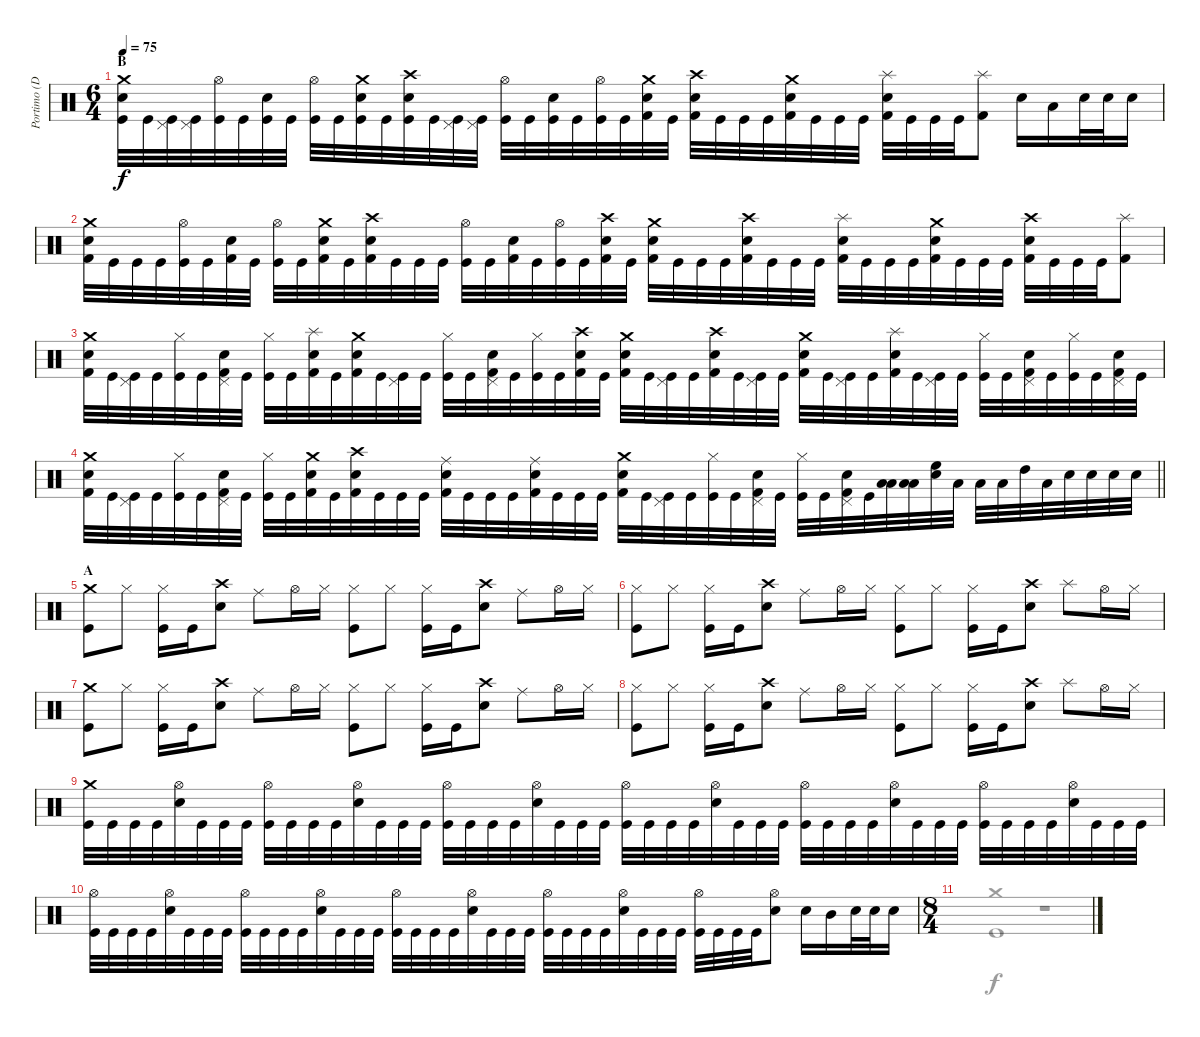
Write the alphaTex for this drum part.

\track ("Portimo (Dums)" "Portimo (D") {instrument percussion}
\staff {score}
\articulation defaults
\voice
\ts (6 4)
\section ("" "B")
\tempo 75
\clef neutral
\ks c
("Crash medium (hit)" "Snare (hit) 2" "Kick (hit)").32{dy f} "Kick (hit)".32 ("Pedal Hi-Hat (hit)" "Kick (hit)").32 ("Pedal Hi-Hat (hit)" "Kick (hit)").32 ("Hi-Hat (open)" "Kick (hit)").32 "Kick (hit)".32 ("Snare (hit) 2" "Kick (hit)").32 "Kick (hit)".32 ("Hi-Hat (open)" "Kick (hit)").32 "Kick (hit)".32 ("Crash medium (hit)" "Snare (hit) 2" "Kick (hit)").32 "Kick (hit)".32 ("Crash high (hit)" "Snare (hit) 2" "Kick (hit)").32 "Kick (hit)".32 ("Pedal Hi-Hat (hit)" "Kick (hit)").32 ("Pedal Hi-Hat (hit)" "Kick (hit)").32 ("Hi-Hat (open)" "Kick (hit)").32 "Kick (hit)".32 ("Snare (hit) 2" "Kick (hit)").32 "Kick (hit)".32 ("Hi-Hat (open)" "Kick (hit)").32 "Kick (hit)".32 ("Crash medium (hit)" "Snare (hit) 2" "Kick (hit) 2").32 "Kick (hit)".32 ("Crash high (hit)" "Snare (hit) 2" "Kick (hit) 2").32 "Kick (hit)".32 "Kick (hit)".32 "Kick (hit)".32 ("Crash medium (hit)" "Snare (hit) 2" "Kick (hit) 2").32 "Kick (hit)".32 "Kick (hit)".32 "Kick (hit)".32 ("Splash (hit)" "Snare (hit) 2" "Kick (hit) 2").32 "Kick (hit)".32 "Kick (hit)".32 "Kick (hit)".32 ("Splash (hit)" "Kick (hit) 2").8 "Snare (hit) 2".16 "Low Tom (hit)".16 "Snare (hit) 2".32 "Snare (hit) 2".32 "Snare (hit) 2".16 |
("Crash medium (hit)" "Snare (hit) 2" "Kick (hit) 2").32 "Kick (hit)".32 "Kick (hit)".32 "Kick (hit)".32 ("Hi-Hat (open)" "Kick (hit)").32 "Kick (hit)".32 ("Snare (hit) 2" "Kick (hit) 2").32 "Kick (hit)".32 ("Hi-Hat (open)" "Kick (hit)").32 "Kick (hit)".32 ("Crash medium (hit)" "Snare (hit) 2" "Kick (hit) 2").32 "Kick (hit)".32 ("Crash high (hit)" "Snare (hit) 2" "Kick (hit) 2").32 "Kick (hit)".32 "Kick (hit)".32 "Kick (hit)".32 ("Hi-Hat (open)" "Kick (hit)").32 "Kick (hit)".32 ("Snare (hit) 2" "Kick (hit) 2").32 "Kick (hit)".32 ("Hi-Hat (open)" "Kick (hit)").32 "Kick (hit)".32 ("Crash high (hit)" "Snare (hit) 2" "Kick (hit) 2").32 "Kick (hit)".32 ("Crash medium (hit)" "Snare (hit) 2" "Kick (hit) 2").32 "Kick (hit)".32 "Kick (hit)".32 "Kick (hit)".32 ("Crash high (hit)" "Snare (hit) 2" "Kick (hit) 2").32 "Kick (hit)".32 "Kick (hit)".32 "Kick (hit)".32 ("Splash (hit)" "Snare (hit) 2" "Kick (hit) 2").32 "Kick (hit)".32 "Kick (hit)".32 "Kick (hit)".32 ("Crash medium (hit)" "Snare (hit) 2" "Kick (hit) 2").32 "Kick (hit)".32 "Kick (hit)".32 "Kick (hit)".32 ("Crash high (hit)" "Snare (hit) 2" "Kick (hit) 2").32 "Kick (hit)".32 "Kick (hit)".32 "Kick (hit)".32 ("Splash (hit)" "Kick (hit) 2").8 |
("Crash medium (hit)" "Snare (hit) 2" "Kick (hit) 2").32 "Kick (hit)".32 ("Pedal Hi-Hat (hit)" "Kick (hit)").32 "Kick (hit)".32 ("Hi-Hat (closed)" "Kick (hit)").32 "Kick (hit)".32 ("Pedal Hi-Hat (hit)" "Snare (hit) 2" "Kick (hit) 2").32 "Kick (hit)".32 ("Hi-Hat (closed)" "Kick (hit)").32 "Kick (hit)".32 ("Splash (hit)" "Snare (hit) 2" "Kick (hit) 2").32 "Kick (hit)".32 ("Crash medium (hit)" "Snare (hit) 2" "Kick (hit) 2").32 "Kick (hit)".32 ("Pedal Hi-Hat (hit)" "Kick (hit)").32 "Kick (hit)".32 ("Hi-Hat (closed)" "Kick (hit)").32 "Kick (hit)".32 ("Pedal Hi-Hat (hit)" "Snare (hit) 2" "Kick (hit) 2").32 "Kick (hit)".32 ("Hi-Hat (closed)" "Kick (hit)").32 "Kick (hit)".32 ("Crash high (hit)" "Snare (hit) 2" "Kick (hit) 2").32 "Kick (hit)".32 ("Crash medium (hit)" "Snare (hit) 2" "Kick (hit) 2").32 "Kick (hit)".32 ("Pedal Hi-Hat (hit)" "Kick (hit)").32 "Kick (hit)".32 ("Crash high (hit)" "Snare (hit) 2" "Kick (hit) 2").32 "Kick (hit)".32 ("Pedal Hi-Hat (hit)" "Kick (hit)").32 "Kick (hit)".32 ("Crash medium (hit)" "Snare (hit) 2" "Kick (hit) 2").32 "Kick (hit)".32 ("Pedal Hi-Hat (hit)" "Kick (hit)").32 "Kick (hit)".32 ("Splash (hit)" "Snare (hit) 2" "Kick (hit) 2").32 "Kick (hit)".32 ("Pedal Hi-Hat (hit)" "Kick (hit)").32 "Kick (hit)".32 ("Hi-Hat (closed)" "Kick (hit)").32 "Kick (hit)".32 ("Pedal Hi-Hat (hit)" "Snare (hit) 2" "Kick (hit) 2").32 "Kick (hit)".32 ("Hi-Hat (closed)" "Kick (hit)").32 "Kick (hit)".32 ("Pedal Hi-Hat (hit)" "Snare (hit) 2" "Kick (hit) 2").32 "Kick (hit)".32 |
\barLineRight lightlight
("Crash medium (hit)" "Snare (hit) 2" "Kick (hit) 2").32 "Kick (hit)".32 ("Pedal Hi-Hat (hit)" "Kick (hit)").32 "Kick (hit)".32 ("Hi-Hat (closed)" "Kick (hit)").32 "Kick (hit)".32 ("Pedal Hi-Hat (hit)" "Snare (hit) 2" "Kick (hit) 2").32 "Kick (hit)".32 ("Hi-Hat (closed)" "Kick (hit)").32 "Kick (hit)".32 ("Crash medium (hit)" "Snare (hit) 2" "Kick (hit) 2").32 "Kick (hit)".32 ("Crash high (hit)" "Snare (hit) 2" "Kick (hit) 2").32 "Kick (hit)".32 "Kick (hit)".32 "Kick (hit)".32 ("Ride (middle)" "Snare (hit) 2" "Kick (hit) 2").32 "Kick (hit)".32 "Kick (hit)".32 "Kick (hit)".32 ("Ride (middle)" "Snare (hit) 2" "Kick (hit) 2").32 "Kick (hit)".32 "Kick (hit)".32 "Kick (hit)".32 ("Crash medium (hit)" "Snare (hit) 2" "Kick (hit) 2").32 "Kick (hit)".32 ("Pedal Hi-Hat (hit)" "Kick (hit)").32 "Kick (hit)".32 ("Hi-Hat (closed)" "Kick (hit)").32 "Kick (hit)".32 ("Pedal Hi-Hat (hit)" "Snare (hit) 2" "Kick (hit) 2").32 "Kick (hit)".32 ("Hi-Hat (closed)" "Kick (hit)").32 "Kick (hit)".32 ("Pedal Hi-Hat (hit)" "Snare (hit) 2" "Kick (hit) 2").32 "Kick (hit)".32 ("Low Floor Tom (hit)" "Low Tom (hit)").32 ("Low Floor Tom (hit)" "Low Tom (hit)").32 ("Electric Snare (hit)" "High Floor Tom (hit)").32 "Low Tom (hit)".32 "Low Tom (hit)".32 "Low Tom (hit)".32 "High Tom (hit)".32 "Low Tom (hit)".32 "Snare (hit) 2".32 "Snare (hit) 2".32 "Snare (hit) 2".32 "Snare (hit) 2".32 |
\section ("" "A")
("Crash medium (hit)" "Kick (hit)").8 "Hi-Hat (closed)".8 ("Hi-Hat (closed)" "Kick (hit)").16 "Kick (hit)".16 ("Crash high (hit)" "Snare (hit) 2").8 "Ride (middle)".8 "Hi-Hat (open)".16 "Hi-Hat (closed)".16 ("Hi-Hat (closed)" "Kick (hit)").8 "Hi-Hat (closed)".8 ("Hi-Hat (closed)" "Kick (hit)").16 "Kick (hit)".16 ("Crash high (hit)" "Snare (hit) 2").8 "Ride (middle)".8 "Hi-Hat (open)".16 "Hi-Hat (closed)".16 |
("Hi-Hat (closed)" "Kick (hit)").8 "Hi-Hat (closed)".8 ("Hi-Hat (closed)" "Kick (hit)").16 "Kick (hit)".16 ("Crash high (hit)" "Snare (hit) 2").8 "Ride (middle)".8 "Hi-Hat (open)".16 "Hi-Hat (closed)".16 ("Hi-Hat (closed)" "Kick (hit)").8 "Hi-Hat (closed)".8 ("Hi-Hat (closed)" "Kick (hit)").16 "Kick (hit)".16 ("Crash high (hit)" "Snare (hit) 2").8 "Splash (hit)".8 "Hi-Hat (open)".16 "Hi-Hat (closed)".16 |
("Crash medium (hit)" "Kick (hit)").8 "Hi-Hat (closed)".8 ("Hi-Hat (closed)" "Kick (hit)").16 "Kick (hit)".16 ("Crash high (hit)" "Snare (hit) 2").8 "Ride (middle)".8 "Hi-Hat (open)".16 "Hi-Hat (closed)".16 ("Hi-Hat (closed)" "Kick (hit)").8 "Hi-Hat (closed)".8 ("Hi-Hat (closed)" "Kick (hit)").16 "Kick (hit)".16 ("Crash high (hit)" "Snare (hit) 2").8 "Ride (middle)".8 "Hi-Hat (open)".16 "Hi-Hat (closed)".16 |
("Hi-Hat (closed)" "Kick (hit)").8 "Hi-Hat (closed)".8 ("Hi-Hat (closed)" "Kick (hit)").16 "Kick (hit)".16 ("Crash high (hit)" "Snare (hit) 2").8 "Ride (middle)".8 "Hi-Hat (open)".16 "Hi-Hat (closed)".16 ("Hi-Hat (closed)" "Kick (hit)").8 "Hi-Hat (closed)".8 ("Hi-Hat (closed)" "Kick (hit)").16 "Kick (hit)".16 ("Crash high (hit)" "Snare (hit) 2").8 "Splash (hit)".8 "Hi-Hat (open)".16 "Hi-Hat (closed)".16 |
("Crash medium (hit)" "Kick (hit)").32 "Kick (hit)".32 "Kick (hit)".32 "Kick (hit)".32 ("Hi-Hat (open)" "Snare (hit) 2").32 "Kick (hit)".32 "Kick (hit)".32 "Kick (hit)".32 ("Hi-Hat (open)" "Kick (hit)").32 "Kick (hit)".32 "Kick (hit)".32 "Kick (hit)".32 ("Hi-Hat (open)" "Snare (hit) 2").32 "Kick (hit)".32 "Kick (hit)".32 "Kick (hit)".32 ("Hi-Hat (open)" "Kick (hit)").32 "Kick (hit)".32 "Kick (hit)".32 "Kick (hit)".32 ("Hi-Hat (open)" "Snare (hit) 2").32 "Kick (hit)".32 "Kick (hit)".32 "Kick (hit)".32 ("Hi-Hat (open)" "Kick (hit)").32 "Kick (hit)".32 "Kick (hit)".32 "Kick (hit)".32 ("Hi-Hat (open)" "Snare (hit) 2").32 "Kick (hit)".32 "Kick (hit)".32 "Kick (hit)".32 ("Hi-Hat (open)" "Kick (hit)").32 "Kick (hit)".32 "Kick (hit)".32 "Kick (hit)".32 ("Hi-Hat (open)" "Snare (hit) 2").32 "Kick (hit)".32 "Kick (hit)".32 "Kick (hit)".32 ("Hi-Hat (open)" "Kick (hit)").32 "Kick (hit)".32 "Kick (hit)".32 "Kick (hit)".32 ("Hi-Hat (open)" "Snare (hit) 2").32 "Kick (hit)".32 "Kick (hit)".32 "Kick (hit)".32 |
("Hi-Hat (open)" "Kick (hit)").32 "Kick (hit)".32 "Kick (hit)".32 "Kick (hit)".32 ("Hi-Hat (open)" "Snare (hit) 2").32 "Kick (hit)".32 "Kick (hit)".32 "Kick (hit)".32 ("Hi-Hat (open)" "Kick (hit)").32 "Kick (hit)".32 "Kick (hit)".32 "Kick (hit)".32 ("Hi-Hat (open)" "Snare (hit) 2").32 "Kick (hit)".32 "Kick (hit)".32 "Kick (hit)".32 ("Hi-Hat (open)" "Kick (hit)").32 "Kick (hit)".32 "Kick (hit)".32 "Kick (hit)".32 ("Hi-Hat (open)" "Snare (hit) 2").32 "Kick (hit)".32 "Kick (hit)".32 "Kick (hit)".32 ("Hi-Hat (open)" "Kick (hit)").32 "Kick (hit)".32 "Kick (hit)".32 "Kick (hit)".32 ("Hi-Hat (open)" "Snare (hit) 2").32 "Kick (hit)".32 "Kick (hit)".32 "Kick (hit)".32 ("Hi-Hat (open)" "Kick (hit)").32 "Kick (hit)".32 "Kick (hit)".32 "Kick (hit)".32 ("Hi-Hat (open)" "Snare (hit) 2").8 "Snare (hit) 2".16 "Mid Tom (hit)".16 "Snare (hit) 2".32 "Snare (hit) 2".32 "Snare (hit) 2".16 |
\ts (8 4)
\voice
\clef neutral
\ottava regular
\simile none
\ks c
|
|
|
\barLineRight lightlight
|
|
|
|
|
|
|
("Crash medium (hit)" "Kick (hit)").1 r.1
